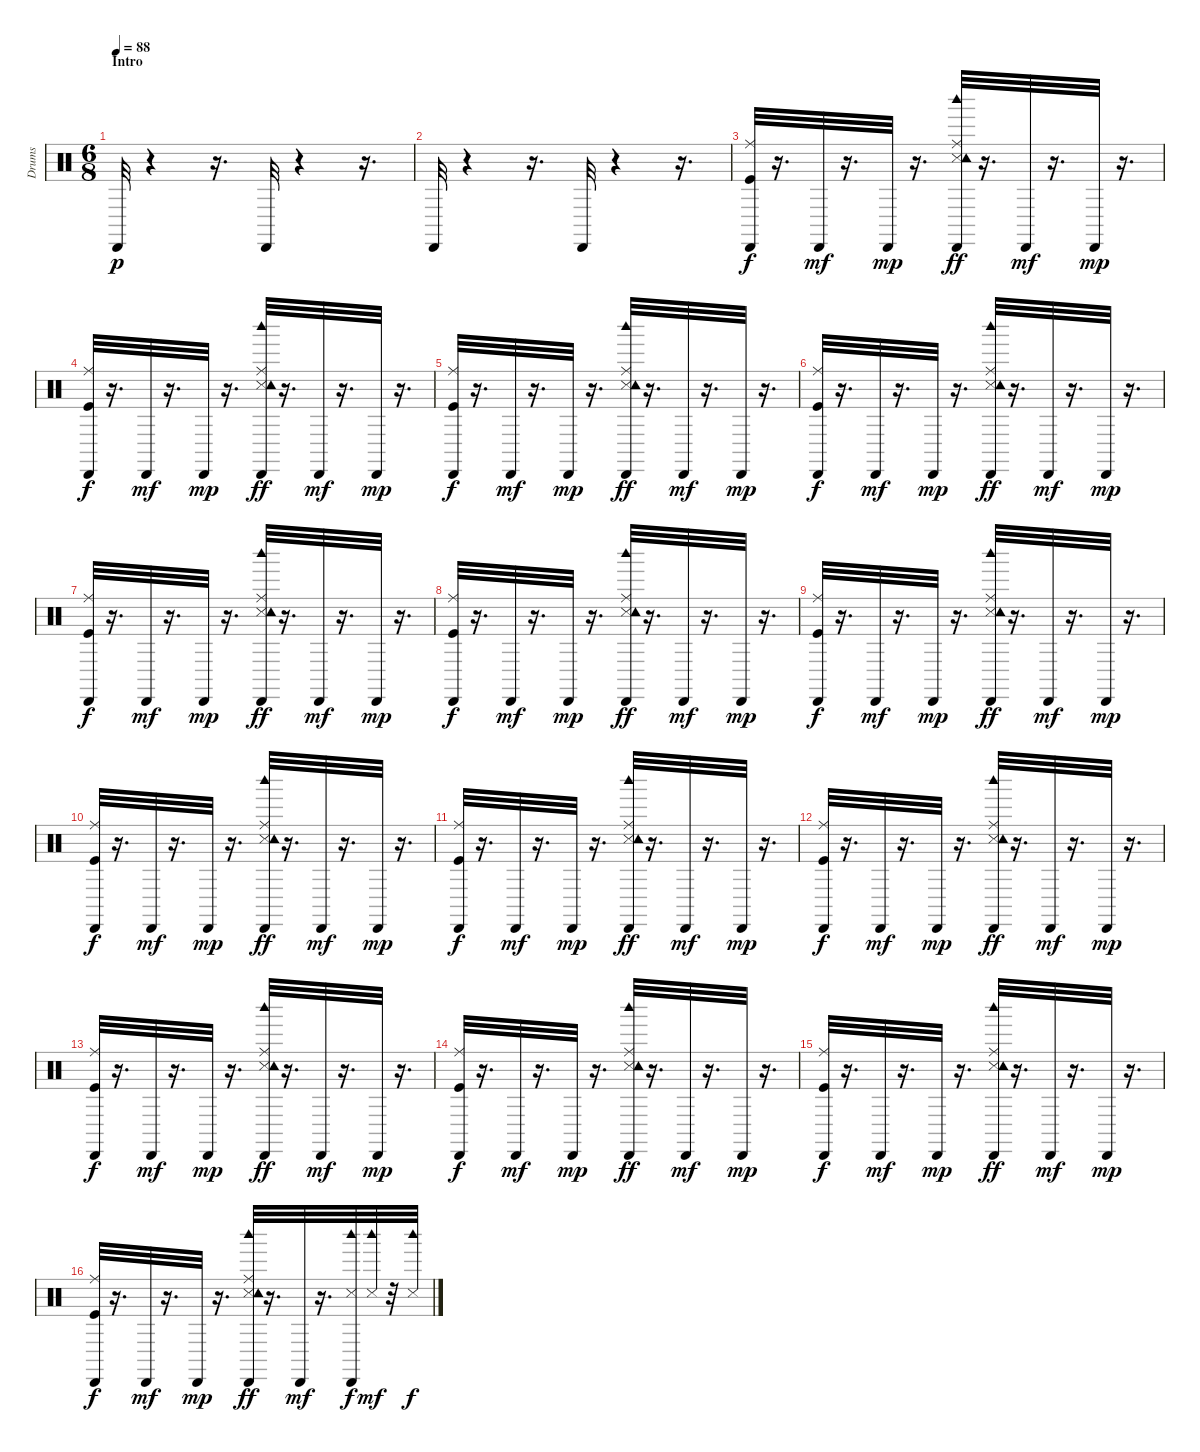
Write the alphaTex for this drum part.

\track ("Drums               " "Drums     ") {instrument percussion}
\staff {score}
\articulation defaults
\ts (6 8)
\section ("" "Intro")
\tempo 88
\clef neutral
\ks c "Cabasa (hit)".32{dy p}
r.4 r.16{d} "Cabasa (hit)".32 r.4 r.16{d} |
"Cabasa (hit)".32 r.4 r.16{d} "Cabasa (hit)".32 r.4 r.16{d} |
("Kick (hit)" "Ride (middle)" "Cabasa (hit)").32{dy f} r.16{d} "Cabasa (hit)".32{dy mf} r.16{d} "Cabasa (hit)".32{dy mp} r.16{d} ("Snare (side stick) 3" "Ride (middle)" "Tambourine (hit)" "Cabasa (hit)" "Woodblock high (hit)").32{dy ff} r.16{d} "Cabasa (hit)".32{dy mf} r.16{d} "Cabasa (hit)".32{dy mp} r.16{d} |
("Kick (hit)" "Ride (middle)" "Cabasa (hit)").32{dy f} r.16{d} "Cabasa (hit)".32{dy mf} r.16{d} "Cabasa (hit)".32{dy mp} r.16{d} ("Snare (side stick) 3" "Ride (middle)" "Tambourine (hit)" "Cabasa (hit)" "Woodblock high (hit)").32{dy ff} r.16{d} "Cabasa (hit)".32{dy mf} r.16{d} "Cabasa (hit)".32{dy mp} r.16{d} |
("Kick (hit)" "Ride (middle)" "Cabasa (hit)").32{dy f} r.16{d} "Cabasa (hit)".32{dy mf} r.16{d} "Cabasa (hit)".32{dy mp} r.16{d} ("Snare (side stick) 3" "Ride (middle)" "Tambourine (hit)" "Cabasa (hit)" "Woodblock high (hit)").32{dy ff} r.16{d} "Cabasa (hit)".32{dy mf} r.16{d} "Cabasa (hit)".32{dy mp} r.16{d} |
("Kick (hit)" "Ride (middle)" "Cabasa (hit)").32{dy f} r.16{d} "Cabasa (hit)".32{dy mf} r.16{d} "Cabasa (hit)".32{dy mp} r.16{d} ("Snare (side stick) 3" "Ride (middle)" "Tambourine (hit)" "Cabasa (hit)" "Woodblock high (hit)").32{dy ff} r.16{d} "Cabasa (hit)".32{dy mf} r.16{d} "Cabasa (hit)".32{dy mp} r.16{d} |
("Kick (hit)" "Ride (middle)" "Cabasa (hit)").32{dy f} r.16{d} "Cabasa (hit)".32{dy mf} r.16{d} "Cabasa (hit)".32{dy mp} r.16{d} ("Snare (side stick) 3" "Ride (middle)" "Tambourine (hit)" "Cabasa (hit)" "Woodblock high (hit)").32{dy ff} r.16{d} "Cabasa (hit)".32{dy mf} r.16{d} "Cabasa (hit)".32{dy mp} r.16{d} |
("Kick (hit)" "Ride (middle)" "Cabasa (hit)").32{dy f} r.16{d} "Cabasa (hit)".32{dy mf} r.16{d} "Cabasa (hit)".32{dy mp} r.16{d} ("Snare (side stick) 3" "Ride (middle)" "Tambourine (hit)" "Cabasa (hit)" "Woodblock high (hit)").32{dy ff} r.16{d} "Cabasa (hit)".32{dy mf} r.16{d} "Cabasa (hit)".32{dy mp} r.16{d} |
("Kick (hit)" "Ride (middle)" "Cabasa (hit)").32{dy f} r.16{d} "Cabasa (hit)".32{dy mf} r.16{d} "Cabasa (hit)".32{dy mp} r.16{d} ("Snare (side stick) 3" "Ride (middle)" "Tambourine (hit)" "Cabasa (hit)" "Woodblock high (hit)").32{dy ff} r.16{d} "Cabasa (hit)".32{dy mf} r.16{d} "Cabasa (hit)".32{dy mp} r.16{d} |
("Kick (hit)" "Ride (middle)" "Cabasa (hit)").32{dy f} r.16{d} "Cabasa (hit)".32{dy mf} r.16{d} "Cabasa (hit)".32{dy mp} r.16{d} ("Snare (side stick) 3" "Ride (middle)" "Tambourine (hit)" "Cabasa (hit)" "Woodblock high (hit)").32{dy ff} r.16{d} "Cabasa (hit)".32{dy mf} r.16{d} "Cabasa (hit)".32{dy mp} r.16{d} |
("Kick (hit)" "Ride (middle)" "Cabasa (hit)").32{dy f} r.16{d} "Cabasa (hit)".32{dy mf} r.16{d} "Cabasa (hit)".32{dy mp} r.16{d} ("Snare (side stick) 3" "Ride (middle)" "Tambourine (hit)" "Cabasa (hit)" "Woodblock high (hit)").32{dy ff} r.16{d} "Cabasa (hit)".32{dy mf} r.16{d} "Cabasa (hit)".32{dy mp} r.16{d} |
("Kick (hit)" "Ride (middle)" "Cabasa (hit)").32{dy f} r.16{d} "Cabasa (hit)".32{dy mf} r.16{d} "Cabasa (hit)".32{dy mp} r.16{d} ("Snare (side stick) 3" "Ride (middle)" "Tambourine (hit)" "Cabasa (hit)" "Woodblock high (hit)").32{dy ff} r.16{d} "Cabasa (hit)".32{dy mf} r.16{d} "Cabasa (hit)".32{dy mp} r.16{d} |
("Kick (hit)" "Ride (middle)" "Cabasa (hit)").32{dy f} r.16{d} "Cabasa (hit)".32{dy mf} r.16{d} "Cabasa (hit)".32{dy mp} r.16{d} ("Snare (side stick) 3" "Ride (middle)" "Tambourine (hit)" "Cabasa (hit)" "Woodblock high (hit)").32{dy ff} r.16{d} "Cabasa (hit)".32{dy mf} r.16{d} "Cabasa (hit)".32{dy mp} r.16{d} |
("Kick (hit)" "Ride (middle)" "Cabasa (hit)").32{dy f} r.16{d} "Cabasa (hit)".32{dy mf} r.16{d} "Cabasa (hit)".32{dy mp} r.16{d} ("Snare (side stick) 3" "Ride (middle)" "Tambourine (hit)" "Cabasa (hit)" "Woodblock high (hit)").32{dy ff} r.16{d} "Cabasa (hit)".32{dy mf} r.16{d} "Cabasa (hit)".32{dy mp} r.16{d} |
("Kick (hit)" "Ride (middle)" "Cabasa (hit)").32{dy f} r.16{d} "Cabasa (hit)".32{dy mf} r.16{d} "Cabasa (hit)".32{dy mp} r.16{d} ("Snare (side stick) 3" "Ride (middle)" "Tambourine (hit)" "Cabasa (hit)" "Woodblock high (hit)").32{dy ff} r.16{d} "Cabasa (hit)".32{dy mf} r.16{d} "Cabasa (hit)".32{dy mp} r.16{d} |
("Kick (hit)" "Ride (middle)" "Cabasa (hit)").32{dy f} r.16{d} "Cabasa (hit)".32{dy mf} r.16{d} "Cabasa (hit)".32{dy mp} r.16{d} ("Snare (side stick) 3" "Ride (middle)" "Tambourine (hit)" "Cabasa (hit)" "Woodblock high (hit)").32{dy ff} r.16{d} "Cabasa (hit)".32{dy mf} r.16{d} ("Snare (side stick) 3" "Cabasa (hit)" "Woodblock high (hit)").32{dy f} ("Snare (side stick) 3" "Woodblock high (hit)").32{dy mf} r.32 ("Snare (side stick) 3" "Woodblock high (hit)").32{dy f}
